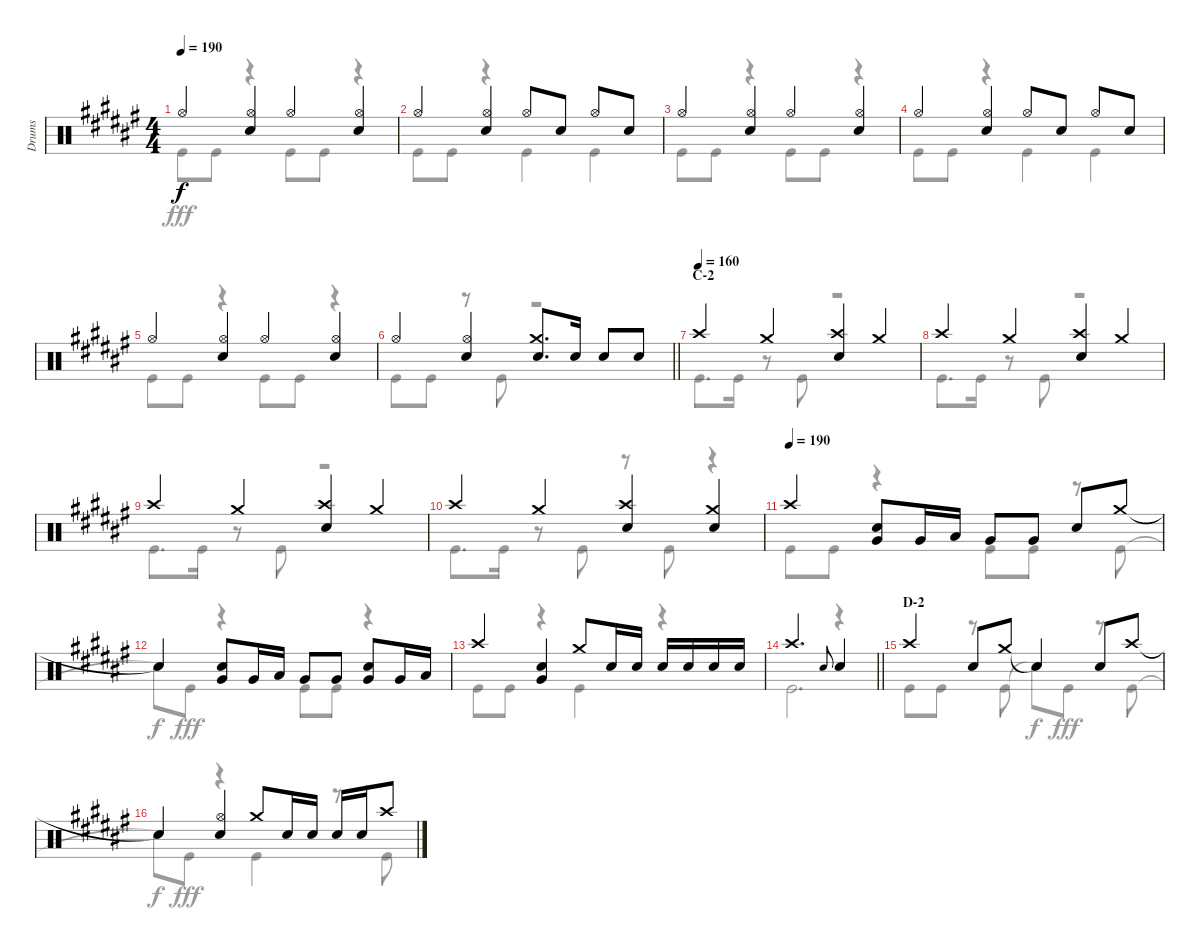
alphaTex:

\track ("Drums" "Drums") {instrument percussion}
\staff {score}
\articulation defaults
\voice
\ts (4 4)
\tempo 190
\clef neutral
\ks f# "Hi-Hat (open)".4{dy f}
("Hi-Hat (open)" "Snare (hit) 2").4 "Hi-Hat (open)".4 ("Hi-Hat (open)" "Snare (hit) 2").4 |
"Hi-Hat (open)".4 ("Hi-Hat (open)" "Snare (hit) 2").4 "Hi-Hat (open)".8 "Snare (hit) 2".8 "Hi-Hat (open)".8 "Snare (hit) 2".8 |
"Hi-Hat (open)".4 ("Hi-Hat (open)" "Snare (hit) 2").4 "Hi-Hat (open)".4 ("Hi-Hat (open)" "Snare (hit) 2").4 |
"Hi-Hat (open)".4 ("Hi-Hat (open)" "Snare (hit) 2").4 "Hi-Hat (open)".8 "Snare (hit) 2".8 "Hi-Hat (open)".8 "Snare (hit) 2".8 |
"Hi-Hat (open)".4 ("Hi-Hat (open)" "Snare (hit) 2").4 "Hi-Hat (open)".4 ("Hi-Hat (open)" "Snare (hit) 2").4 |
\barLineRight lightlight "Hi-Hat (open)".4
("Hi-Hat (open)" "Snare (hit) 2").4 ("Crash medium (hit)" "Snare (hit) 2").8{d} "Snare (hit) 2".16 "Snare (hit) 2".8 "Snare (hit) 2".8 |
\section ("" "C-2")
\tempo (160)
"Crash high (hit)".4 "Crash medium (hit)".4 ("Crash high (hit)" "Snare (hit) 2").4 "Crash medium (hit)".4 |
"Crash high (hit)".4 "Crash medium (hit)".4 ("Crash high (hit)" "Snare (hit) 2").4 "Crash medium (hit)".4 |
"Crash high (hit)".4 "Crash medium (hit)".4 ("Crash high (hit)" "Snare (hit) 2").4 "Crash medium (hit)".4 |
"Crash high (hit)".4 "Crash medium (hit)".4 ("Crash high (hit)" "Snare (hit) 2").4 ("Crash medium (hit)" "Snare (hit) 2").4 |
\tempo (190)
"Crash high (hit)".4 ("Snare (hit) 2" "Very Low Tom (hit)").8 "Very Low Tom (hit)".16 "Low Tom (hit)".16 "Very Low Tom (hit)".8 "Very Low Tom (hit)".8 "Snare (hit) 2".8 "Crash medium (hit)".8 |
"Snare (hit)"{t}.4 ("Snare (hit) 2" "Very Low Tom (hit)").8 "Very Low Tom (hit)".16 "Low Tom (hit)".16 "Very Low Tom (hit)".8 "Very Low Tom (hit)".8 ("Snare (hit) 2" "Very Low Tom (hit)").8 "Very Low Tom (hit)".16 "Low Tom (hit)".16 |
"Crash high (hit)".4 ("Snare (hit) 2" "Very Low Tom (hit)").4 "Crash medium (hit)".8 "Snare (hit) 2".16 "Snare (hit) 2".16 "Snare (hit) 2".16 "Snare (hit) 2".16 "Snare (hit) 2".16 "Snare (hit) 2".16 |
\barLineRight lightlight "Crash high (hit)".2{d} "Snare (hit) 2".8{gr onbeat} "Snare (hit) 2".4
|
\section ("" "D-2")
"Crash high (hit)".4 "Snare (hit) 2".8 "Crash medium (hit)".8 "Snare (hit)"{t}.4 "Snare (hit) 2".8 "Crash high (hit)".8 |
"Snare (hit)"{t}.4 ("Hi-Hat (open)" "Snare (hit) 2").4 "Crash medium (hit)".8 "Snare (hit) 2".16 "Snare (hit) 2".16 "Snare (hit) 2".16 "Snare (hit) 2".16 "Crash high (hit)".8
\voice
\clef neutral
\ottava regular
\simile none
\ks f# "Kick (hit)".8{dy fff} "Kick (hit)".8
r.4 "Kick (hit)".8 "Kick (hit)".8 r.4 |
"Kick (hit)".8 "Kick (hit)".8 r.4 "Kick (hit)".4 "Kick (hit)".4 |
"Kick (hit)".8 "Kick (hit)".8 r.4 "Kick (hit)".8 "Kick (hit)".8 r.4 |
"Kick (hit)".8 "Kick (hit)".8 r.4 "Kick (hit)".4 "Kick (hit)".4 |
"Kick (hit)".8 "Kick (hit)".8 r.4 "Kick (hit)".8 "Kick (hit)".8 r.4 |
\barLineRight lightlight "Kick (hit)".8 "Kick (hit)".8
r.8 "Kick (hit)".8 r.2 |
"Kick (hit)".8{d} "Kick (hit)".16 r.8 "Kick (hit)".8 r.2 |
"Kick (hit)".8{d} "Kick (hit)".16 r.8 "Kick (hit)".8 r.2 |
"Kick (hit)".8{d} "Kick (hit)".16 r.8 "Kick (hit)".8 r.2 |
"Kick (hit)".8{d} "Kick (hit)".16 r.8 "Kick (hit)".8 r.8 "Kick (hit)".8 r.4 |
"Kick (hit)".8 "Kick (hit)".8 r.4 "Kick (hit)".8 "Kick (hit)".8 r.8 "Kick (hit)".8 |
"Snare (hit)"{t}.8{dy f} "Kick (hit)".8{dy fff} r.4 "Kick (hit)".8 "Kick (hit)".8 r.4 |
"Kick (hit)".8 "Kick (hit)".8 r.4 "Kick (hit)".4 r.4 |
\barLineRight lightlight "Kick (hit)".2{d}
r.4 |
"Kick (hit)".8 "Kick (hit)".8 r.8 "Kick (hit)".8 "Snare (hit)"{t}.8{dy f} "Kick (hit)".8{dy fff} r.8 "Kick (hit)".8 |
"Snare (hit)"{t}.8{dy f} "Kick (hit)".8{dy fff} r.4 "Kick (hit)".4 r.8 "Kick (hit)".8
